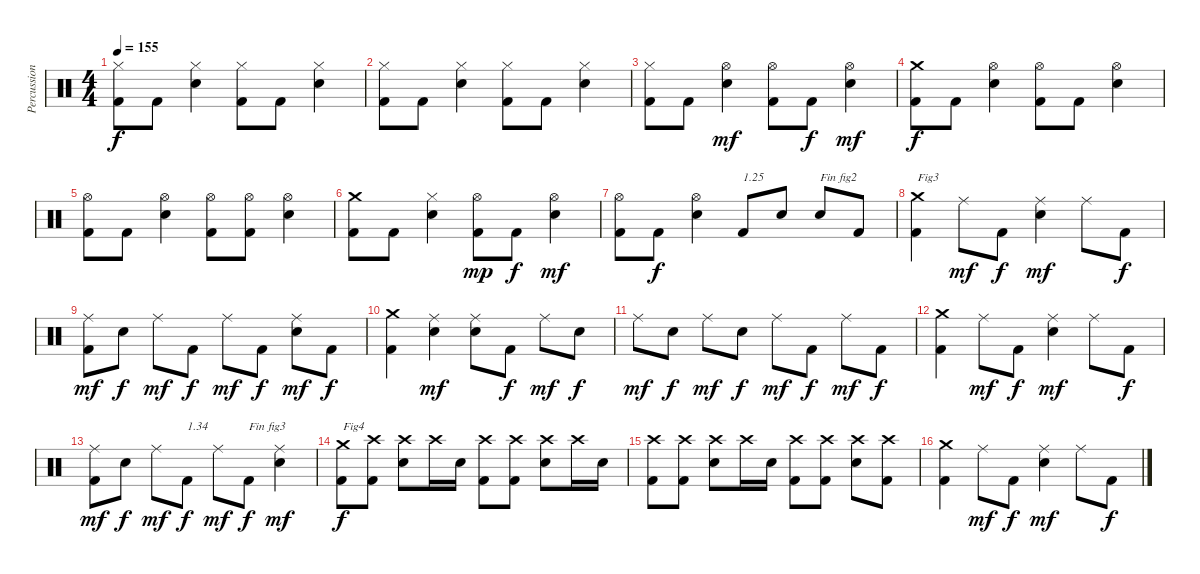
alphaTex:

\track ("Percussions" "Percussion") {instrument percussion}
\staff {score}
\articulation defaults
\ts (4 4)
\tempo 155
\clef neutral
\ks c
("Kick (hit) 2" "Hi-Hat (closed)").8{dy f} "Kick (hit) 2".8 ("Electric Snare (hit)" "Hi-Hat (closed)").4 ("Kick (hit) 2" "Hi-Hat (closed)").8 "Kick (hit) 2".8 ("Electric Snare (hit)" "Hi-Hat (closed)").4 |
("Kick (hit) 2" "Hi-Hat (closed)").8 "Kick (hit) 2".8 ("Electric Snare (hit)" "Hi-Hat (closed)").4 ("Kick (hit) 2" "Hi-Hat (closed)").8 "Kick (hit) 2".8 ("Electric Snare (hit)" "Hi-Hat (closed)").4 |
("Kick (hit) 2" "Hi-Hat (closed)").8 "Kick (hit) 2".8 ("Electric Snare (hit)" "Hi-Hat (open)").4{dy mf} ("Kick (hit) 2" "Hi-Hat (open)").8 "Kick (hit) 2".8{dy f} ("Electric Snare (hit)" "Hi-Hat (open)").4{dy mf} |
("Kick (hit) 2" "Crash medium (hit)").8{dy f} "Kick (hit) 2".8 ("Electric Snare (hit)" "Hi-Hat (open)").4 ("Kick (hit) 2" "Hi-Hat (open)").8 "Kick (hit) 2".8 ("Electric Snare (hit)" "Hi-Hat (open)").4 |
("Kick (hit) 2" "Hi-Hat (open)").8 "Kick (hit) 2".8 ("Electric Snare (hit)" "Hi-Hat (open)").4 ("Kick (hit) 2" "Hi-Hat (open)").8 ("Kick (hit) 2" "Hi-Hat (open)").8 ("Electric Snare (hit)" "Hi-Hat (open)").4 |
("Kick (hit) 2" "Crash medium (hit)").8 "Kick (hit) 2".8 ("Electric Snare (hit)" "Hi-Hat (closed)").4 ("Kick (hit) 2" "Hi-Hat (open)").8{dy mp} "Kick (hit) 2".8{dy f} ("Electric Snare (hit)" "Hi-Hat (open)").4{dy mf} |
("Kick (hit) 2" "Hi-Hat (open)").8 "Kick (hit) 2".8{dy f} ("Electric Snare (hit)" "Hi-Hat (open)").4 "Kick (hit) 2".8{txt "1.25"} "Electric Snare (hit)".8 "Electric Snare (hit)".8{txt "Fin fig2"} "Kick (hit) 2".8 |
("Kick (hit) 2" "Crash medium (hit)").4{txt "Fig3"} "Ride (middle)".8{dy mf} "Kick (hit) 2".8{dy f} ("Electric Snare (hit)" "Ride (middle)").4{dy mf} "Ride (middle)".8 "Kick (hit) 2".8{dy f} |
("Kick (hit) 2" "Ride (middle)").8{dy mf} "Electric Snare (hit)".8{dy f} "Ride (middle)".8{dy mf} "Kick (hit) 2".8{dy f} "Ride (middle)".8{dy mf} "Kick (hit) 2".8{dy f} ("Electric Snare (hit)" "Ride (middle)").8{dy mf} "Kick (hit) 2".8{dy f} |
("Kick (hit) 2" "Crash medium (hit)").4 ("Electric Snare (hit)" "Ride (middle)").4{dy mf} ("Electric Snare (hit)" "Ride (middle)").8 "Kick (hit) 2".8{dy f} "Ride (middle)".8{dy mf} "Electric Snare (hit)".8{dy f} |
"Ride (middle)".8{dy mf} "Electric Snare (hit)".8{dy f} "Ride (middle)".8{dy mf} "Electric Snare (hit)".8{dy f} "Ride (middle)".8{dy mf} "Kick (hit) 2".8{dy f} "Ride (middle)".8{dy mf} "Kick (hit) 2".8{dy f} |
("Kick (hit) 2" "Crash medium (hit)").4 "Ride (middle)".8{dy mf} "Kick (hit) 2".8{dy f} ("Electric Snare (hit)" "Ride (middle)").4{dy mf} "Ride (middle)".8 "Kick (hit) 2".8{dy f} |
("Kick (hit) 2" "Ride (middle)").8{dy mf} "Electric Snare (hit)".8{dy f} "Ride (middle)".8{dy mf} "Kick (hit) 2".8{txt "1.34" dy f} "Ride (middle)".8{dy mf} "Kick (hit) 2".8{txt "Fin fig3" dy f} ("Electric Snare (hit)" "Ride (middle)").4{dy mf} |
("Kick (hit) 2" "Crash medium (hit)").8{txt "Fig4" dy f} ("Kick (hit) 2" "Crash high (hit)").8 ("Electric Snare (hit)" "Crash high (hit)").8 "Crash high (hit)".16 "Electric Snare (hit)".16 ("Kick (hit) 2" "Crash high (hit)").8 ("Kick (hit) 2" "Crash high (hit)").8 ("Electric Snare (hit)" "Crash high (hit)").8 "Crash high (hit)".16 "Electric Snare (hit)".16 |
("Kick (hit) 2" "Crash high (hit)").8 ("Kick (hit) 2" "Crash high (hit)").8 ("Electric Snare (hit)" "Crash high (hit)").8 "Crash high (hit)".16 "Electric Snare (hit)".16 ("Kick (hit) 2" "Crash high (hit)").8 ("Kick (hit) 2" "Crash high (hit)").8 ("Electric Snare (hit)" "Crash high (hit)").8 ("Kick (hit) 2" "Crash high (hit)").8 |
("Kick (hit) 2" "Crash medium (hit)").4 "Ride (middle)".8{dy mf} "Kick (hit) 2".8{dy f} ("Electric Snare (hit)" "Ride (middle)").4{dy mf} "Ride (middle)".8 "Kick (hit) 2".8{dy f}
